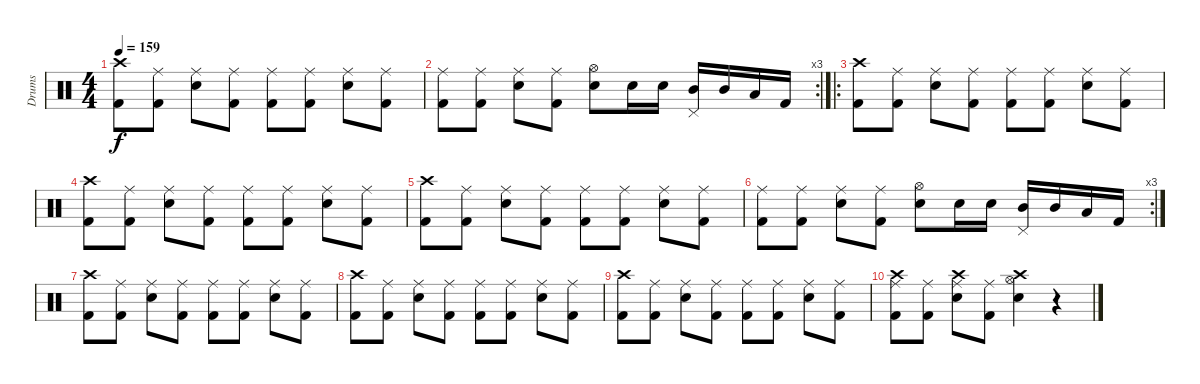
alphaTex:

\track ("Drums" "Drums") {instrument percussion}
\staff {score}
\articulation defaults
\ts (4 4)
\tempo 159
\clef neutral
\ks c
("Crash high (hit)" "Kick (hit) 2").8{dy f} ("Ride (middle)" "Kick (hit) 2").8 ("Ride (middle)" "Snare (hit) 2").8 ("Ride (middle)" "Kick (hit) 2").8 ("Ride (middle)" "Kick (hit) 2").8 ("Ride (middle)" "Kick (hit) 2").8 ("Ride (middle)" "Snare (hit) 2").8 ("Ride (middle)" "Kick (hit) 2").8 |
\rc 3
("Ride (middle)" "Kick (hit) 2").8 ("Ride (middle)" "Kick (hit) 2").8 ("Ride (middle)" "Snare (hit) 2").8 ("Ride (middle)" "Kick (hit) 2").8 ("Hi-Hat (open)" "Snare (hit) 2").8 "Snare (hit) 2".16 "Snare (hit) 2".16 ("Pedal Hi-Hat (hit)" "Mid Tom (hit)").16 "Mid Tom (hit)".16 "Low Floor Tom (hit)".16 "Kick (hit) 2".16 |
\ro
("Crash high (hit)" "Kick (hit) 2").8 ("Ride (middle)" "Kick (hit) 2").8 ("Ride (middle)" "Snare (hit) 2").8 ("Ride (middle)" "Kick (hit) 2").8 ("Ride (middle)" "Kick (hit) 2").8 ("Ride (middle)" "Kick (hit) 2").8 ("Ride (middle)" "Snare (hit) 2").8 ("Ride (middle)" "Kick (hit) 2").8 |
("Crash high (hit)" "Kick (hit) 2").8 ("Ride (middle)" "Kick (hit) 2").8 ("Ride (middle)" "Snare (hit) 2").8 ("Ride (middle)" "Kick (hit) 2").8 ("Ride (middle)" "Kick (hit) 2").8 ("Ride (middle)" "Kick (hit) 2").8 ("Ride (middle)" "Snare (hit) 2").8 ("Ride (middle)" "Kick (hit) 2").8 |
("Crash high (hit)" "Kick (hit) 2").8 ("Ride (middle)" "Kick (hit) 2").8 ("Ride (middle)" "Snare (hit) 2").8 ("Ride (middle)" "Kick (hit) 2").8 ("Ride (middle)" "Kick (hit) 2").8 ("Ride (middle)" "Kick (hit) 2").8 ("Ride (middle)" "Snare (hit) 2").8 ("Ride (middle)" "Kick (hit) 2").8 |
\rc 3
("Ride (middle)" "Kick (hit) 2").8 ("Ride (middle)" "Kick (hit) 2").8 ("Ride (middle)" "Snare (hit) 2").8 ("Ride (middle)" "Kick (hit) 2").8 ("Hi-Hat (open)" "Snare (hit) 2").8 "Snare (hit) 2".16 "Snare (hit) 2".16 ("Pedal Hi-Hat (hit)" "Mid Tom (hit)").16 "Mid Tom (hit)".16 "Low Floor Tom (hit)".16 "Kick (hit) 2".16 |
("Crash high (hit)" "Kick (hit) 2").8 ("Ride (middle)" "Kick (hit) 2").8 ("Ride (middle)" "Snare (hit) 2").8 ("Ride (middle)" "Kick (hit) 2").8 ("Ride (middle)" "Kick (hit) 2").8 ("Ride (middle)" "Kick (hit) 2").8 ("Ride (middle)" "Snare (hit) 2").8 ("Ride (middle)" "Kick (hit) 2").8 |
("Crash high (hit)" "Kick (hit) 2").8 ("Ride (middle)" "Kick (hit) 2").8 ("Ride (middle)" "Snare (hit) 2").8 ("Ride (middle)" "Kick (hit) 2").8 ("Ride (middle)" "Kick (hit) 2").8 ("Ride (middle)" "Kick (hit) 2").8 ("Ride (middle)" "Snare (hit) 2").8 ("Ride (middle)" "Kick (hit) 2").8 |
("Crash high (hit)" "Kick (hit) 2").8 ("Ride (middle)" "Kick (hit) 2").8 ("Ride (middle)" "Snare (hit) 2").8 ("Ride (middle)" "Kick (hit) 2").8 ("Ride (middle)" "Kick (hit) 2").8 ("Ride (middle)" "Kick (hit) 2").8 ("Ride (middle)" "Snare (hit) 2").8 ("Ride (middle)" "Kick (hit) 2").8 |
("Crash high (hit)" "Ride (middle)" "Kick (hit) 2").8 ("Ride (middle)" "Kick (hit) 2").8 ("Crash high (hit)" "Ride (middle)" "Snare (hit) 2").8 ("Ride (middle)" "Kick (hit) 2").8 ("Crash high (hit)" "Hi-Hat (open)" "Snare (hit) 2").4 r.4
